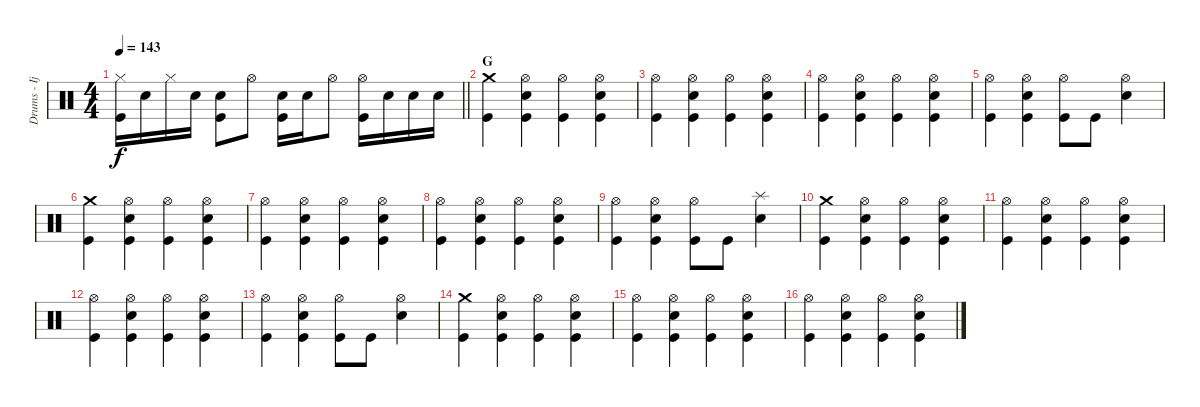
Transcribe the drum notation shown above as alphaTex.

\track ("Drums - Ijichi" "Drums - Ij") {instrument percussion}
\staff {score}
\articulation defaults
\ts (4 4)
\tempo 143
\clef neutral
\barLineRight lightlight
\ks c
("Hi-Hat (closed)" "Kick (hit)").16{dy f} "Electric Snare (hit)".16 "Hi-Hat (closed)".16 "Electric Snare (hit)".16 ("Electric Snare (hit)" "Kick (hit)").8 "Hi-Hat (open)".8 ("Electric Snare (hit)" "Kick (hit)").16 "Electric Snare (hit)".16 "Hi-Hat (open)".8 ("Hi-Hat (open)" "Kick (hit)").16 "Electric Snare (hit)".16 "Electric Snare (hit)".16 "Electric Snare (hit)".16 |
\section ("" "G")
("Crash medium (hit)" "Kick (hit)").4 ("Hi-Hat (open)" "Electric Snare (hit)" "Kick (hit)").4 ("Hi-Hat (open)" "Kick (hit)").4 ("Hi-Hat (open)" "Electric Snare (hit)" "Kick (hit)").4 |
("Hi-Hat (open)" "Kick (hit)").4 ("Hi-Hat (open)" "Electric Snare (hit)" "Kick (hit)").4 ("Hi-Hat (open)" "Kick (hit)").4 ("Hi-Hat (open)" "Electric Snare (hit)" "Kick (hit)").4 |
("Hi-Hat (open)" "Kick (hit)").4 ("Hi-Hat (open)" "Electric Snare (hit)" "Kick (hit)").4 ("Hi-Hat (open)" "Kick (hit)").4 ("Hi-Hat (open)" "Electric Snare (hit)" "Kick (hit)").4 |
("Hi-Hat (open)" "Kick (hit)").4 ("Hi-Hat (open)" "Electric Snare (hit)" "Kick (hit)").4 ("Hi-Hat (open)" "Kick (hit)").8 "Kick (hit)".8 ("Hi-Hat (open)" "Electric Snare (hit)").4 |
("Crash medium (hit)" "Kick (hit)").4 ("Hi-Hat (open)" "Electric Snare (hit)" "Kick (hit)").4 ("Hi-Hat (open)" "Kick (hit)").4 ("Hi-Hat (open)" "Electric Snare (hit)" "Kick (hit)").4 |
("Hi-Hat (open)" "Kick (hit)").4 ("Hi-Hat (open)" "Electric Snare (hit)" "Kick (hit)").4 ("Hi-Hat (open)" "Kick (hit)").4 ("Hi-Hat (open)" "Electric Snare (hit)" "Kick (hit)").4 |
("Hi-Hat (open)" "Kick (hit)").4 ("Hi-Hat (open)" "Electric Snare (hit)" "Kick (hit)").4 ("Hi-Hat (open)" "Kick (hit)").4 ("Hi-Hat (open)" "Electric Snare (hit)" "Kick (hit)").4 |
("Hi-Hat (open)" "Kick (hit)").4 ("Hi-Hat (open)" "Electric Snare (hit)" "Kick (hit)").4 ("Hi-Hat (open)" "Kick (hit)").8 "Kick (hit)".8 ("Splash (hit)" "Electric Snare (hit)").4 |
("Crash medium (hit)" "Kick (hit)").4 ("Hi-Hat (open)" "Electric Snare (hit)" "Kick (hit)").4 ("Hi-Hat (open)" "Kick (hit)").4 ("Hi-Hat (open)" "Electric Snare (hit)" "Kick (hit)").4 |
("Hi-Hat (open)" "Kick (hit)").4 ("Hi-Hat (open)" "Electric Snare (hit)" "Kick (hit)").4 ("Hi-Hat (open)" "Kick (hit)").4 ("Hi-Hat (open)" "Electric Snare (hit)" "Kick (hit)").4 |
("Hi-Hat (open)" "Kick (hit)").4 ("Hi-Hat (open)" "Electric Snare (hit)" "Kick (hit)").4 ("Hi-Hat (open)" "Kick (hit)").4 ("Hi-Hat (open)" "Electric Snare (hit)" "Kick (hit)").4 |
("Hi-Hat (open)" "Kick (hit)").4 ("Hi-Hat (open)" "Electric Snare (hit)" "Kick (hit)").4 ("Hi-Hat (open)" "Kick (hit)").8 "Kick (hit)".8 ("Hi-Hat (open)" "Electric Snare (hit)").4 |
("Crash medium (hit)" "Kick (hit)").4 ("Hi-Hat (open)" "Electric Snare (hit)" "Kick (hit)").4 ("Hi-Hat (open)" "Kick (hit)").4 ("Hi-Hat (open)" "Electric Snare (hit)" "Kick (hit)").4 |
("Hi-Hat (open)" "Kick (hit)").4 ("Hi-Hat (open)" "Electric Snare (hit)" "Kick (hit)").4 ("Hi-Hat (open)" "Kick (hit)").4 ("Hi-Hat (open)" "Electric Snare (hit)" "Kick (hit)").4 |
("Hi-Hat (open)" "Kick (hit)").4 ("Hi-Hat (open)" "Electric Snare (hit)" "Kick (hit)").4 ("Hi-Hat (open)" "Kick (hit)").4 ("Hi-Hat (open)" "Electric Snare (hit)" "Kick (hit)").4
